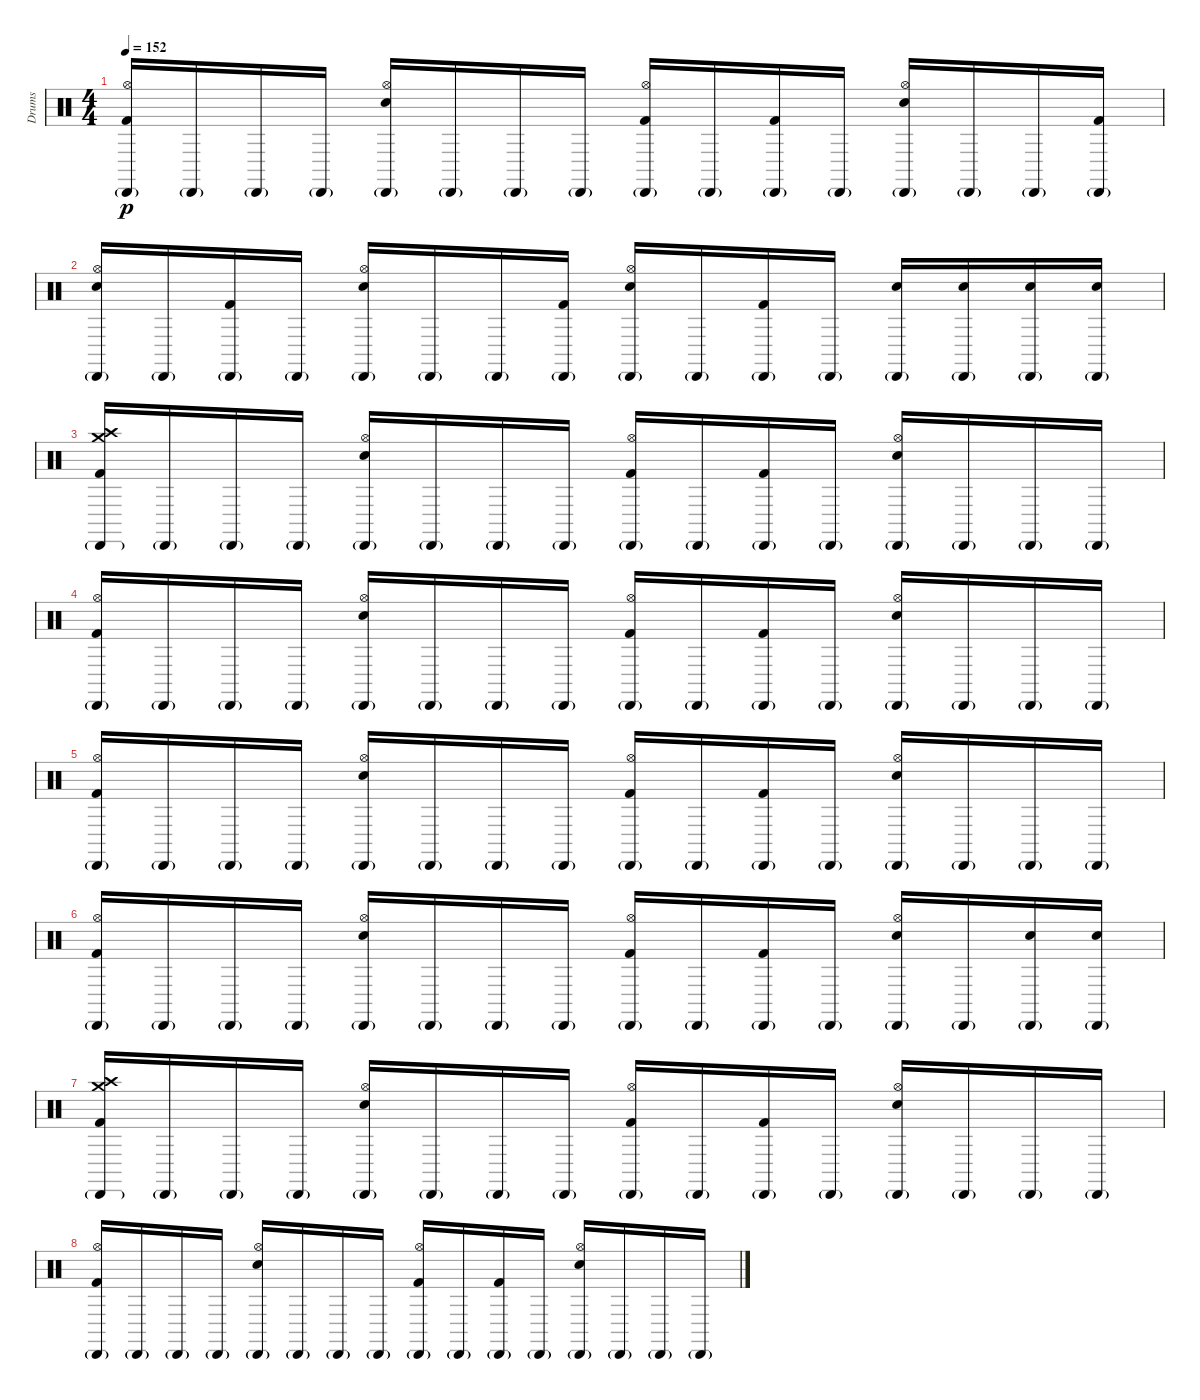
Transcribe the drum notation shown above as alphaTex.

\track ("Drums" "Drums") {instrument percussion}
\staff {score}
\articulation defaults
\ts (4 4)
\tempo 152
\clef neutral
\ks c
("Hi-Hat (open)" "Cabasa (hit)"{g} "Kick (hit) 2").16{dy p} "Cabasa (hit)"{g}.16 "Cabasa (hit)"{g}.16 "Cabasa (hit)"{g}.16 ("Hi-Hat (open)" "Cabasa (hit)"{g} "Electric Snare (hit)").16 "Cabasa (hit)"{g}.16 "Cabasa (hit)"{g}.16 "Cabasa (hit)"{g}.16 ("Hi-Hat (open)" "Cabasa (hit)"{g} "Kick (hit) 2").16 "Cabasa (hit)"{g}.16 ("Cabasa (hit)"{g} "Kick (hit) 2").16 "Cabasa (hit)"{g}.16 ("Hi-Hat (open)" "Cabasa (hit)"{g} "Electric Snare (hit)").16 "Cabasa (hit)"{g}.16 "Cabasa (hit)"{g}.16 ("Cabasa (hit)"{g} "Kick (hit) 2").16 |
("Hi-Hat (open)" "Cabasa (hit)"{g} "Electric Snare (hit)").16 "Cabasa (hit)"{g}.16 ("Cabasa (hit)"{g} "Kick (hit) 2").16 "Cabasa (hit)"{g}.16 ("Hi-Hat (open)" "Cabasa (hit)"{g} "Electric Snare (hit)").16 "Cabasa (hit)"{g}.16 "Cabasa (hit)"{g}.16 ("Cabasa (hit)"{g} "Kick (hit) 2").16 ("Hi-Hat (open)" "Cabasa (hit)"{g} "Electric Snare (hit)").16 "Cabasa (hit)"{g}.16 ("Cabasa (hit)"{g} "Kick (hit) 2").16 "Cabasa (hit)"{g}.16 ("Cabasa (hit)"{g} "Electric Snare (hit)").16 ("Cabasa (hit)"{g} "Electric Snare (hit)").16 ("Cabasa (hit)"{g} "Electric Snare (hit)").16 ("Cabasa (hit)"{g} "Electric Snare (hit)").16 |
("Crash high (hit)" "Crash medium (hit)" "Cabasa (hit)"{g} "Kick (hit) 2").16 "Cabasa (hit)"{g}.16 "Cabasa (hit)"{g}.16 "Cabasa (hit)"{g}.16 ("Hi-Hat (open)" "Cabasa (hit)"{g} "Electric Snare (hit)").16 "Cabasa (hit)"{g}.16 "Cabasa (hit)"{g}.16 "Cabasa (hit)"{g}.16 ("Hi-Hat (open)" "Cabasa (hit)"{g} "Kick (hit) 2").16 "Cabasa (hit)"{g}.16 ("Cabasa (hit)"{g} "Kick (hit) 2").16 "Cabasa (hit)"{g}.16 ("Hi-Hat (open)" "Cabasa (hit)"{g} "Electric Snare (hit)").16 "Cabasa (hit)"{g}.16 "Cabasa (hit)"{g}.16 "Cabasa (hit)"{g}.16 |
("Hi-Hat (open)" "Cabasa (hit)"{g} "Kick (hit) 2").16 "Cabasa (hit)"{g}.16 "Cabasa (hit)"{g}.16 "Cabasa (hit)"{g}.16 ("Hi-Hat (open)" "Cabasa (hit)"{g} "Electric Snare (hit)").16 "Cabasa (hit)"{g}.16 "Cabasa (hit)"{g}.16 "Cabasa (hit)"{g}.16 ("Hi-Hat (open)" "Cabasa (hit)"{g} "Kick (hit) 2").16 "Cabasa (hit)"{g}.16 ("Cabasa (hit)"{g} "Kick (hit) 2").16 "Cabasa (hit)"{g}.16 ("Hi-Hat (open)" "Cabasa (hit)"{g} "Electric Snare (hit)").16 "Cabasa (hit)"{g}.16 "Cabasa (hit)"{g}.16 "Cabasa (hit)"{g}.16 |
("Hi-Hat (open)" "Cabasa (hit)"{g} "Kick (hit) 2").16 "Cabasa (hit)"{g}.16 "Cabasa (hit)"{g}.16 "Cabasa (hit)"{g}.16 ("Hi-Hat (open)" "Cabasa (hit)"{g} "Electric Snare (hit)").16 "Cabasa (hit)"{g}.16 "Cabasa (hit)"{g}.16 "Cabasa (hit)"{g}.16 ("Hi-Hat (open)" "Cabasa (hit)"{g} "Kick (hit) 2").16 "Cabasa (hit)"{g}.16 ("Cabasa (hit)"{g} "Kick (hit) 2").16 "Cabasa (hit)"{g}.16 ("Hi-Hat (open)" "Cabasa (hit)"{g} "Electric Snare (hit)").16 "Cabasa (hit)"{g}.16 "Cabasa (hit)"{g}.16 "Cabasa (hit)"{g}.16 |
("Hi-Hat (open)" "Cabasa (hit)"{g} "Kick (hit) 2").16 "Cabasa (hit)"{g}.16 "Cabasa (hit)"{g}.16 "Cabasa (hit)"{g}.16 ("Hi-Hat (open)" "Cabasa (hit)"{g} "Electric Snare (hit)").16 "Cabasa (hit)"{g}.16 "Cabasa (hit)"{g}.16 "Cabasa (hit)"{g}.16 ("Hi-Hat (open)" "Cabasa (hit)"{g} "Kick (hit) 2").16 "Cabasa (hit)"{g}.16 ("Cabasa (hit)"{g} "Kick (hit) 2").16 "Cabasa (hit)"{g}.16 ("Hi-Hat (open)" "Cabasa (hit)"{g} "Electric Snare (hit)").16 "Cabasa (hit)"{g}.16 ("Cabasa (hit)"{g} "Electric Snare (hit)").16 ("Cabasa (hit)"{g} "Electric Snare (hit)").16 |
("Crash high (hit)" "Crash medium (hit)" "Cabasa (hit)"{g} "Kick (hit) 2").16 "Cabasa (hit)"{g}.16 "Cabasa (hit)"{g}.16 "Cabasa (hit)"{g}.16 ("Hi-Hat (open)" "Cabasa (hit)"{g} "Electric Snare (hit)").16 "Cabasa (hit)"{g}.16 "Cabasa (hit)"{g}.16 "Cabasa (hit)"{g}.16 ("Hi-Hat (open)" "Cabasa (hit)"{g} "Kick (hit) 2").16 "Cabasa (hit)"{g}.16 ("Cabasa (hit)"{g} "Kick (hit) 2").16 "Cabasa (hit)"{g}.16 ("Hi-Hat (open)" "Cabasa (hit)"{g} "Electric Snare (hit)").16 "Cabasa (hit)"{g}.16 "Cabasa (hit)"{g}.16 "Cabasa (hit)"{g}.16 |
("Hi-Hat (open)" "Cabasa (hit)"{g} "Kick (hit) 2").16 "Cabasa (hit)"{g}.16 "Cabasa (hit)"{g}.16 "Cabasa (hit)"{g}.16 ("Hi-Hat (open)" "Cabasa (hit)"{g} "Electric Snare (hit)").16 "Cabasa (hit)"{g}.16 "Cabasa (hit)"{g}.16 "Cabasa (hit)"{g}.16 ("Hi-Hat (open)" "Cabasa (hit)"{g} "Kick (hit) 2").16 "Cabasa (hit)"{g}.16 ("Cabasa (hit)"{g} "Kick (hit) 2").16 "Cabasa (hit)"{g}.16 ("Hi-Hat (open)" "Cabasa (hit)"{g} "Electric Snare (hit)").16 "Cabasa (hit)"{g}.16 "Cabasa (hit)"{g}.16 "Cabasa (hit)"{g}.16
